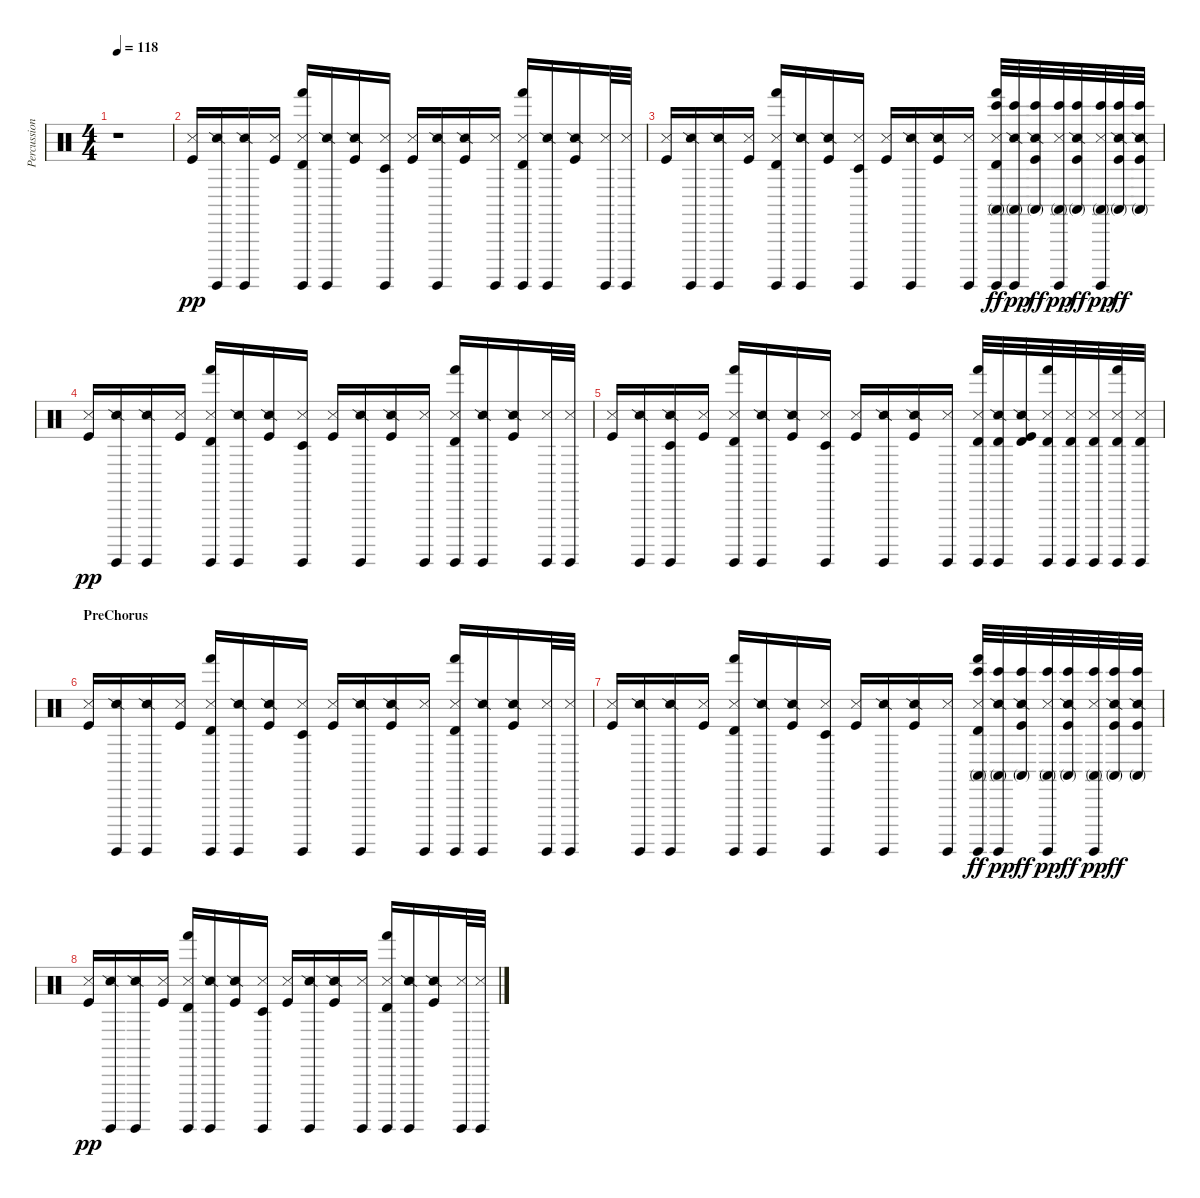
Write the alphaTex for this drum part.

\track ("Percussion" "Percussion") {instrument percussion}
\staff {score}
\articulation defaults
\ts (4 4)
\tempo 118
\clef neutral
\ks c
r.1{dy pp} |
("Kick (hit)" "Snare (side stick) 3").16 ("Surdo (hit)" "Snare (side stick) 2").16 ("Surdo (hit)" "Snare (side stick) 2").16 ("Kick (hit)" "Metronome (hit)").16 ("Timbale high (hit)" "Hand (hit)" "Surdo (hit)" "Snare (side stick) 3").16 ("Surdo (hit)" "Snare (side stick) 2").16 ("Kick (hit)" "Snare (side stick) 2").16 ("Timbale low (hit)" "Surdo (hit)" "Metronome (hit)").16 ("Kick (hit)" "Snare (side stick) 3").16 ("Surdo (hit)" "Snare (side stick) 2").16 ("Kick (hit)" "Snare (side stick) 2").16 ("Surdo (hit)" "Metronome (hit)").16 ("Timbale high (hit)" "Hand (hit)" "Surdo (hit)" "Snare (side stick) 3").16 ("Surdo (hit)" "Snare (side stick) 2").16 ("Kick (hit)" "Snare (side stick) 2").16 ("Surdo (hit)" "Metronome (hit)").32 ("Surdo (hit)" "Metronome (hit)").32 |
("Kick (hit)" "Snare (side stick) 3").16 ("Surdo (hit)" "Snare (side stick) 2").16 ("Surdo (hit)" "Snare (side stick) 2").16 ("Kick (hit)" "Metronome (hit)").16 ("Timbale high (hit)" "Hand (hit)" "Surdo (hit)" "Snare (side stick) 3").16 ("Surdo (hit)" "Snare (side stick) 2").16 ("Kick (hit)" "Snare (side stick) 2").16 ("Timbale low (hit)" "Surdo (hit)" "Metronome (hit)").16 ("Kick (hit)" "Snare (side stick) 3").16 ("Surdo (hit)" "Snare (side stick) 2").16 ("Kick (hit)" "Snare (side stick) 2").16 ("Surdo (hit)" "Metronome (hit)").16 ("Timbale high (hit)" "Hand (hit)" "Bongo High (hit)" "Surdo (hit)" "Snare (side stick) 3" "Conga high (mute)").32{dy ff} ("Bongo High (hit)" "Surdo (hit)" "Snare (side stick) 2" "Conga high (mute)").32{dy pp} ("Bongo High (hit)" "Kick (hit)" "Snare (side stick) 2" "Conga high (mute)").32{dy ff} ("Bongo High (hit)" "Surdo (hit)" "Metronome (hit)" "Conga high (mute)").32{dy pp} ("Bongo High (hit)" "Kick (hit)" "Snare (side stick) 2" "Conga high (mute)").32{dy ff} ("Bongo High (hit)" "Surdo (hit)" "Metronome (hit)" "Conga high (mute)").32{dy pp} ("Bongo High (hit)" "Kick (hit)" "Snare (side stick) 2" "Conga high (mute)").32{dy ff} ("Bongo High (hit)" "Kick (hit)" "Snare (side stick) 2" "Conga high (mute)").32 |
("Kick (hit)" "Snare (side stick) 3").16{dy pp} ("Surdo (hit)" "Snare (side stick) 2").16 ("Surdo (hit)" "Snare (side stick) 2").16 ("Kick (hit)" "Metronome (hit)").16 ("Timbale high (hit)" "Hand (hit)" "Surdo (hit)" "Snare (side stick) 3").16 ("Surdo (hit)" "Snare (side stick) 2").16 ("Kick (hit)" "Snare (side stick) 2").16 ("Timbale low (hit)" "Surdo (hit)" "Metronome (hit)").16 ("Kick (hit)" "Snare (side stick) 3").16 ("Surdo (hit)" "Snare (side stick) 2").16 ("Kick (hit)" "Snare (side stick) 2").16 ("Surdo (hit)" "Metronome (hit)").16 ("Timbale high (hit)" "Hand (hit)" "Surdo (hit)" "Snare (side stick) 3").16 ("Surdo (hit)" "Snare (side stick) 2").16 ("Kick (hit)" "Snare (side stick) 2").16 ("Surdo (hit)" "Metronome (hit)").32 ("Surdo (hit)" "Metronome (hit)").32 |
("Kick (hit)" "Snare (side stick) 3").16 ("Surdo (hit)" "Snare (side stick) 2").16 ("Timbale low (hit)" "Surdo (hit)" "Snare (side stick) 2").16 ("Kick (hit)" "Metronome (hit)").16 ("Timbale high (hit)" "Hand (hit)" "Surdo (hit)" "Snare (side stick) 3").16 ("Surdo (hit)" "Snare (side stick) 2").16 ("Kick (hit)" "Snare (side stick) 2").16 ("Timbale low (hit)" "Surdo (hit)" "Metronome (hit)").16 ("Kick (hit)" "Snare (side stick) 3").16 ("Surdo (hit)" "Snare (side stick) 2").16 ("Kick (hit)" "Snare (side stick) 2").16 ("Surdo (hit)" "Metronome (hit)").16 ("Timbale high (hit)" "Hand (hit)" "Surdo (hit)" "Snare (side stick) 3").32 ("Timbale high (hit)" "Surdo (hit)" "Snare (side stick) 2").32 ("Timbale high (hit)" "Kick (hit)" "Snare (side stick) 2").32 ("Timbale high (hit)" "Hand (hit)" "Surdo (hit)" "Metronome (hit)").32 ("Timbale high (hit)" "Surdo (hit)" "Metronome (hit)").32 ("Timbale high (hit)" "Surdo (hit)" "Metronome (hit)").32 ("Timbale high (hit)" "Hand (hit)" "Surdo (hit)" "Metronome (hit)").32 ("Timbale high (hit)" "Surdo (hit)" "Metronome (hit)").32 |
\section ("" "PreChorus")
("Kick (hit)" "Snare (side stick) 3").16 ("Surdo (hit)" "Snare (side stick) 2").16 ("Surdo (hit)" "Snare (side stick) 2").16 ("Kick (hit)" "Metronome (hit)").16 ("Timbale high (hit)" "Hand (hit)" "Surdo (hit)" "Snare (side stick) 3").16 ("Surdo (hit)" "Snare (side stick) 2").16 ("Kick (hit)" "Snare (side stick) 2").16 ("Timbale low (hit)" "Surdo (hit)" "Metronome (hit)").16 ("Kick (hit)" "Snare (side stick) 3").16 ("Surdo (hit)" "Snare (side stick) 2").16 ("Kick (hit)" "Snare (side stick) 2").16 ("Surdo (hit)" "Metronome (hit)").16 ("Timbale high (hit)" "Hand (hit)" "Surdo (hit)" "Snare (side stick) 3").16 ("Surdo (hit)" "Snare (side stick) 2").16 ("Kick (hit)" "Snare (side stick) 2").16 ("Surdo (hit)" "Metronome (hit)").32 ("Surdo (hit)" "Metronome (hit)").32 |
("Kick (hit)" "Snare (side stick) 3").16 ("Surdo (hit)" "Snare (side stick) 2").16 ("Surdo (hit)" "Snare (side stick) 2").16 ("Kick (hit)" "Metronome (hit)").16 ("Timbale high (hit)" "Hand (hit)" "Surdo (hit)" "Snare (side stick) 3").16 ("Surdo (hit)" "Snare (side stick) 2").16 ("Kick (hit)" "Snare (side stick) 2").16 ("Timbale low (hit)" "Surdo (hit)" "Metronome (hit)").16 ("Kick (hit)" "Snare (side stick) 3").16 ("Surdo (hit)" "Snare (side stick) 2").16 ("Kick (hit)" "Snare (side stick) 2").16 ("Surdo (hit)" "Metronome (hit)").16 ("Timbale high (hit)" "Hand (hit)" "Bongo High (hit)" "Surdo (hit)" "Snare (side stick) 3" "Conga high (mute)").32{dy ff} ("Bongo High (hit)" "Surdo (hit)" "Snare (side stick) 2" "Conga high (mute)").32{dy pp} ("Bongo High (hit)" "Kick (hit)" "Snare (side stick) 2" "Conga high (mute)").32{dy ff} ("Bongo High (hit)" "Surdo (hit)" "Metronome (hit)" "Conga high (mute)").32{dy pp} ("Bongo High (hit)" "Kick (hit)" "Snare (side stick) 2" "Conga high (mute)").32{dy ff} ("Bongo High (hit)" "Surdo (hit)" "Metronome (hit)" "Conga high (mute)").32{dy pp} ("Bongo High (hit)" "Kick (hit)" "Snare (side stick) 2" "Conga high (mute)").32{dy ff} ("Bongo High (hit)" "Kick (hit)" "Snare (side stick) 2" "Conga high (mute)").32 |
("Kick (hit)" "Snare (side stick) 3").16{dy pp} ("Surdo (hit)" "Snare (side stick) 2").16 ("Surdo (hit)" "Snare (side stick) 2").16 ("Kick (hit)" "Metronome (hit)").16 ("Timbale high (hit)" "Hand (hit)" "Surdo (hit)" "Snare (side stick) 3").16 ("Surdo (hit)" "Snare (side stick) 2").16 ("Kick (hit)" "Snare (side stick) 2").16 ("Timbale low (hit)" "Surdo (hit)" "Metronome (hit)").16 ("Kick (hit)" "Snare (side stick) 3").16 ("Surdo (hit)" "Snare (side stick) 2").16 ("Kick (hit)" "Snare (side stick) 2").16 ("Surdo (hit)" "Metronome (hit)").16 ("Timbale high (hit)" "Hand (hit)" "Surdo (hit)" "Snare (side stick) 3").16 ("Surdo (hit)" "Snare (side stick) 2").16 ("Kick (hit)" "Snare (side stick) 2").16 ("Surdo (hit)" "Metronome (hit)").32 ("Surdo (hit)" "Metronome (hit)").32
